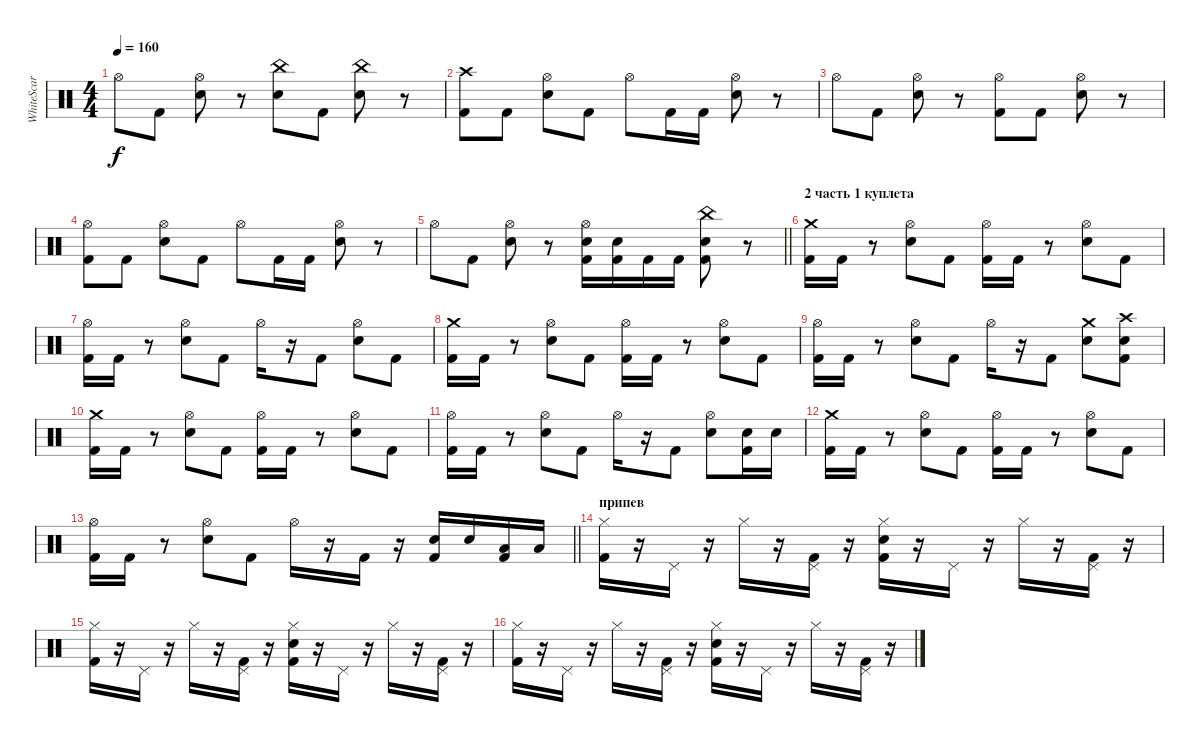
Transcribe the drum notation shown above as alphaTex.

\track ("WhiteScar" "WhiteScar") {instrument percussion}
\staff {score}
\articulation defaults
\ts (4 4)
\tempo 160
\clef neutral
\ks c "Hi-Hat (open)".8{dy f} "Kick (hit) 2".8
("Hi-Hat (open)" "Snare (hit) 2").8 r.8 ("China (hit)" "Snare (hit) 2").8 "Kick (hit) 2".8 ("China (hit)" "Snare (hit) 2").8 r.8 |
("Crash high (hit)" "Kick (hit) 2").8 "Kick (hit) 2".8 ("Hi-Hat (open)" "Snare (hit) 2").8 "Kick (hit) 2".8 "Hi-Hat (open)".8 "Kick (hit) 2".16 "Kick (hit) 2".16 ("Hi-Hat (open)" "Snare (hit) 2").8 r.8 |
"Hi-Hat (open)".8 "Kick (hit) 2".8 ("Hi-Hat (open)" "Snare (hit) 2").8 r.8 ("Hi-Hat (open)" "Kick (hit) 2").8 "Kick (hit) 2".8 ("Hi-Hat (open)" "Snare (hit) 2").8 r.8 |
("Hi-Hat (open)" "Kick (hit) 2").8 "Kick (hit) 2".8 ("Hi-Hat (open)" "Snare (hit) 2").8 "Kick (hit) 2".8 "Hi-Hat (open)".8 "Kick (hit) 2".16 "Kick (hit) 2".16 ("Hi-Hat (open)" "Snare (hit) 2").8 r.8 |
\barLineRight lightlight "Hi-Hat (open)".8 "Kick (hit) 2".8
("Hi-Hat (open)" "Snare (hit) 2").8 r.8 ("Hi-Hat (open)" "Snare (hit) 2" "Kick (hit) 2").16 ("Snare (hit) 2" "Kick (hit) 2").16 "Kick (hit) 2".16 "Kick (hit) 2".16 ("China (hit)" "Snare (hit) 2" "Kick (hit) 2").8 r.8 |
\section ("" "2 часть 1 куплета")
("Crash medium (hit)" "Kick (hit) 2").16 "Kick (hit) 2".16 r.8 ("Hi-Hat (open)" "Snare (hit) 2").8 "Kick (hit) 2".8 ("Hi-Hat (open)" "Kick (hit) 2").16 "Kick (hit) 2".16 r.8 ("Hi-Hat (open)" "Snare (hit) 2").8 "Kick (hit) 2".8 |
("Hi-Hat (open)" "Kick (hit) 2").16 "Kick (hit) 2".16 r.8 ("Hi-Hat (open)" "Snare (hit) 2").8 "Kick (hit) 2".8 "Hi-Hat (open)".16 r.16 "Kick (hit) 2".8 ("Hi-Hat (open)" "Snare (hit) 2").8 "Kick (hit) 2".8 |
("Crash medium (hit)" "Kick (hit) 2").16 "Kick (hit) 2".16 r.8 ("Hi-Hat (open)" "Snare (hit) 2").8 "Kick (hit) 2".8 ("Hi-Hat (open)" "Kick (hit) 2").16 "Kick (hit) 2".16 r.8 ("Hi-Hat (open)" "Snare (hit) 2").8 "Kick (hit) 2".8 |
("Hi-Hat (open)" "Kick (hit) 2").16 "Kick (hit) 2".16 r.8 ("Hi-Hat (open)" "Snare (hit) 2").8 "Kick (hit) 2".8 "Hi-Hat (open)".16 r.16 "Kick (hit) 2".8 ("Crash medium (hit)" "Snare (hit) 2").8 ("Crash high (hit)" "Snare (hit) 2" "Kick (hit) 2").8 |
("Crash medium (hit)" "Kick (hit) 2").16 "Kick (hit) 2".16 r.8 ("Hi-Hat (open)" "Snare (hit) 2").8 "Kick (hit) 2".8 ("Hi-Hat (open)" "Kick (hit) 2").16 "Kick (hit) 2".16 r.8 ("Hi-Hat (open)" "Snare (hit) 2").8 "Kick (hit) 2".8 |
("Hi-Hat (open)" "Kick (hit) 2").16 "Kick (hit) 2".16 r.8 ("Hi-Hat (open)" "Snare (hit) 2").8 "Kick (hit) 2".8 "Hi-Hat (open)".16 r.16 "Kick (hit) 2".8 ("Hi-Hat (open)" "Snare (hit) 2").8 ("Snare (hit) 2" "Kick (hit) 2").16 "Snare (hit) 2".16 |
("Crash medium (hit)" "Kick (hit) 2").16 "Kick (hit) 2".16 r.8 ("Hi-Hat (open)" "Snare (hit) 2").8 "Kick (hit) 2".8 ("Hi-Hat (open)" "Kick (hit) 2").16 "Kick (hit) 2".16 r.8 ("Hi-Hat (open)" "Snare (hit) 2").8 "Kick (hit) 2".8 |
\barLineRight lightlight
("Hi-Hat (open)" "Kick (hit) 2").16 "Kick (hit) 2".16 r.8 ("Hi-Hat (open)" "Snare (hit) 2").8 "Kick (hit) 2".8 "Hi-Hat (open)".16 r.16 "Kick (hit) 2".16 r.16 ("Snare (hit) 2" "Kick (hit) 2").16 "Snare (hit) 2".16 ("Low Tom (hit)" "Kick (hit) 2").16 "Low Tom (hit)".16 |
\section ("" "припев")
("Hi-Hat (closed)" "Kick (hit) 2").16 r.16 "Pedal Hi-Hat (hit)".16 r.16 "Hi-Hat (closed)".16 r.16 ("Pedal Hi-Hat (hit)" "Kick (hit) 2").16 r.16 ("Hi-Hat (closed)" "Snare (hit) 2" "Kick (hit) 2").16 r.16 "Pedal Hi-Hat (hit)".16 r.16 "Hi-Hat (closed)".16 r.16 ("Pedal Hi-Hat (hit)" "Kick (hit) 2").16 r.16 |
("Hi-Hat (closed)" "Kick (hit) 2").16 r.16 "Pedal Hi-Hat (hit)".16 r.16 "Hi-Hat (closed)".16 r.16 ("Pedal Hi-Hat (hit)" "Kick (hit) 2").16 r.16 ("Hi-Hat (closed)" "Snare (hit) 2" "Kick (hit) 2").16 r.16 "Pedal Hi-Hat (hit)".16 r.16 "Hi-Hat (closed)".16 r.16 ("Pedal Hi-Hat (hit)" "Kick (hit) 2").16 r.16 |
("Hi-Hat (closed)" "Kick (hit) 2").16 r.16 "Pedal Hi-Hat (hit)".16 r.16 "Hi-Hat (closed)".16 r.16 ("Pedal Hi-Hat (hit)" "Kick (hit) 2").16 r.16 ("Hi-Hat (closed)" "Snare (hit) 2" "Kick (hit) 2").16 r.16 "Pedal Hi-Hat (hit)".16 r.16 "Hi-Hat (closed)".16 r.16 ("Pedal Hi-Hat (hit)" "Kick (hit) 2").16 r.16
